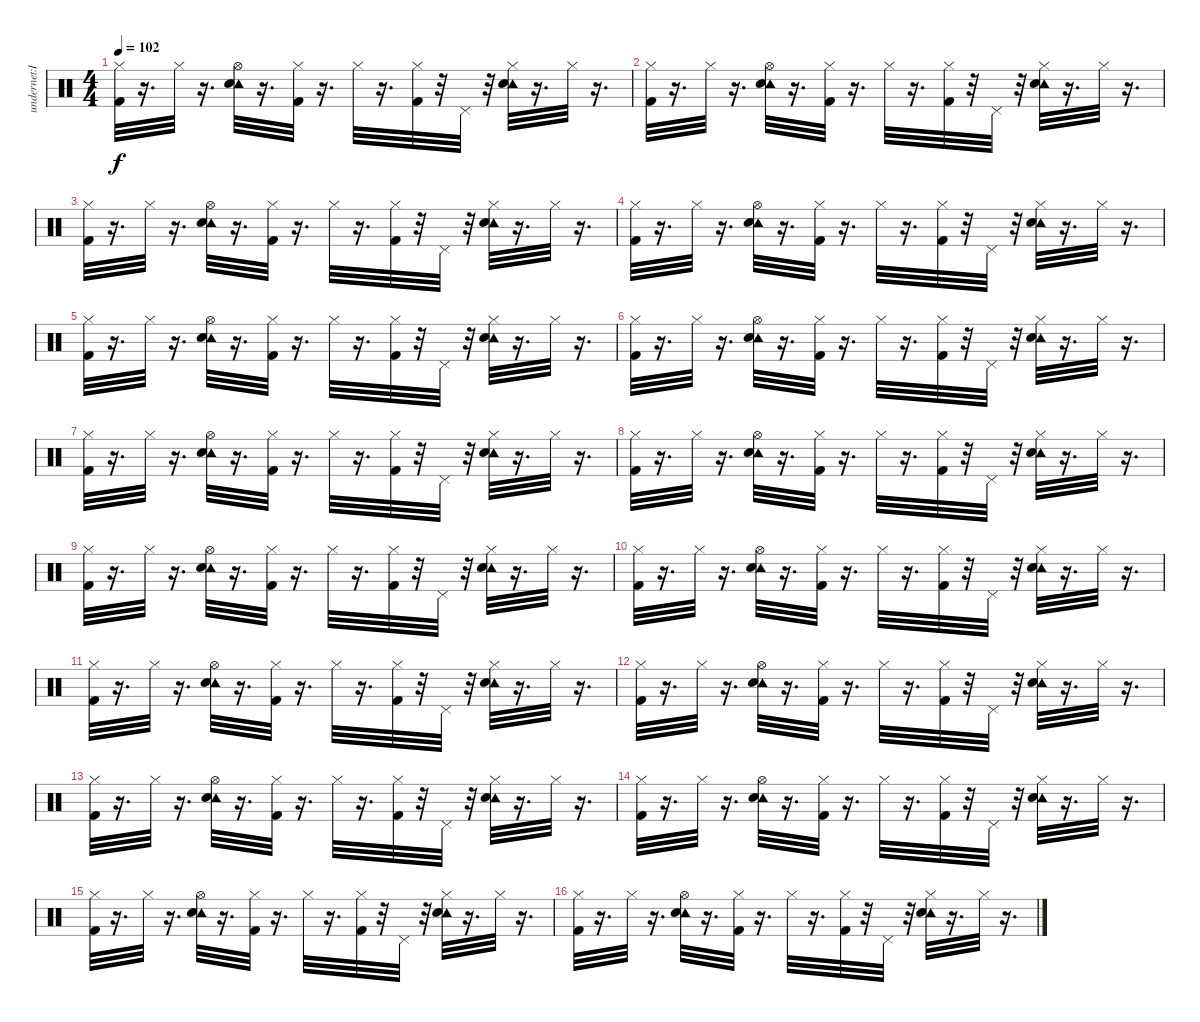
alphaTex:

\track ("undernet:IRC:bong21" "undernet:I") {instrument percussion}
\staff {score}
\articulation defaults
\ts (4 4)
\tempo 102
\clef neutral
\ks c
("Hi-Hat (closed)" "Kick (hit) 2").32{dy f} r.16{d} "Hi-Hat (closed)".32 r.16{d} ("Tambourine (hit)" "Hi-Hat (open)" "Electric Snare (hit)").32 r.16{d} ("Hi-Hat (closed)" "Kick (hit) 2").32 r.16{d} "Hi-Hat (closed)".32 r.16{d} ("Hi-Hat (closed)" "Kick (hit) 2").32 r.32 "Pedal Hi-Hat (hit)".32 r.32 ("Tambourine (hit)" "Hi-Hat (closed)" "Electric Snare (hit)").32 r.16{d} "Hi-Hat (closed)".32 r.16{d} |
("Hi-Hat (closed)" "Kick (hit) 2").32 r.16{d} "Hi-Hat (closed)".32 r.16{d} ("Tambourine (hit)" "Hi-Hat (open)" "Electric Snare (hit)").32 r.16{d} ("Hi-Hat (closed)" "Kick (hit) 2").32 r.16{d} "Hi-Hat (closed)".32 r.16{d} ("Hi-Hat (closed)" "Kick (hit) 2").32 r.32 "Pedal Hi-Hat (hit)".32 r.32 ("Tambourine (hit)" "Hi-Hat (closed)" "Electric Snare (hit)").32 r.16{d} "Hi-Hat (closed)".32 r.16{d} |
("Hi-Hat (closed)" "Kick (hit) 2").32 r.16{d} "Hi-Hat (closed)".32 r.16{d} ("Tambourine (hit)" "Hi-Hat (open)" "Electric Snare (hit)").32 r.16{d} ("Hi-Hat (closed)" "Kick (hit) 2").32 r.16{d} "Hi-Hat (closed)".32 r.16{d} ("Hi-Hat (closed)" "Kick (hit) 2").32 r.32 "Pedal Hi-Hat (hit)".32 r.32 ("Tambourine (hit)" "Hi-Hat (closed)" "Electric Snare (hit)").32 r.16{d} "Hi-Hat (closed)".32 r.16{d} |
("Hi-Hat (closed)" "Kick (hit) 2").32 r.16{d} "Hi-Hat (closed)".32 r.16{d} ("Tambourine (hit)" "Hi-Hat (open)" "Electric Snare (hit)").32 r.16{d} ("Hi-Hat (closed)" "Kick (hit) 2").32 r.16{d} "Hi-Hat (closed)".32 r.16{d} ("Hi-Hat (closed)" "Kick (hit) 2").32 r.32 "Pedal Hi-Hat (hit)".32 r.32 ("Tambourine (hit)" "Hi-Hat (closed)" "Electric Snare (hit)").32 r.16{d} "Hi-Hat (closed)".32 r.16{d} |
("Hi-Hat (closed)" "Kick (hit) 2").32 r.16{d} "Hi-Hat (closed)".32 r.16{d} ("Tambourine (hit)" "Hi-Hat (open)" "Electric Snare (hit)").32 r.16{d} ("Hi-Hat (closed)" "Kick (hit) 2").32 r.16{d} "Hi-Hat (closed)".32 r.16{d} ("Hi-Hat (closed)" "Kick (hit) 2").32 r.32 "Pedal Hi-Hat (hit)".32 r.32 ("Tambourine (hit)" "Hi-Hat (closed)" "Electric Snare (hit)").32 r.16{d} "Hi-Hat (closed)".32 r.16{d} |
("Hi-Hat (closed)" "Kick (hit) 2").32 r.16{d} "Hi-Hat (closed)".32 r.16{d} ("Tambourine (hit)" "Hi-Hat (open)" "Electric Snare (hit)").32 r.16{d} ("Hi-Hat (closed)" "Kick (hit) 2").32 r.16{d} "Hi-Hat (closed)".32 r.16{d} ("Hi-Hat (closed)" "Kick (hit) 2").32 r.32 "Pedal Hi-Hat (hit)".32 r.32 ("Tambourine (hit)" "Hi-Hat (closed)" "Electric Snare (hit)").32 r.16{d} "Hi-Hat (closed)".32 r.16{d} |
("Hi-Hat (closed)" "Kick (hit) 2").32 r.16{d} "Hi-Hat (closed)".32 r.16{d} ("Tambourine (hit)" "Hi-Hat (open)" "Electric Snare (hit)").32 r.16{d} ("Hi-Hat (closed)" "Kick (hit) 2").32 r.16{d} "Hi-Hat (closed)".32 r.16{d} ("Hi-Hat (closed)" "Kick (hit) 2").32 r.32 "Pedal Hi-Hat (hit)".32 r.32 ("Tambourine (hit)" "Hi-Hat (closed)" "Electric Snare (hit)").32 r.16{d} "Hi-Hat (closed)".32 r.16{d} |
("Hi-Hat (closed)" "Kick (hit) 2").32 r.16{d} "Hi-Hat (closed)".32 r.16{d} ("Tambourine (hit)" "Hi-Hat (open)" "Electric Snare (hit)").32 r.16{d} ("Hi-Hat (closed)" "Kick (hit) 2").32 r.16{d} "Hi-Hat (closed)".32 r.16{d} ("Hi-Hat (closed)" "Kick (hit) 2").32 r.32 "Pedal Hi-Hat (hit)".32 r.32 ("Tambourine (hit)" "Hi-Hat (closed)" "Electric Snare (hit)").32 r.16{d} "Hi-Hat (closed)".32 r.16{d} |
("Hi-Hat (closed)" "Kick (hit) 2").32 r.16{d} "Hi-Hat (closed)".32 r.16{d} ("Tambourine (hit)" "Hi-Hat (open)" "Electric Snare (hit)").32 r.16{d} ("Hi-Hat (closed)" "Kick (hit) 2").32 r.16{d} "Hi-Hat (closed)".32 r.16{d} ("Hi-Hat (closed)" "Kick (hit) 2").32 r.32 "Pedal Hi-Hat (hit)".32 r.32 ("Tambourine (hit)" "Hi-Hat (closed)" "Electric Snare (hit)").32 r.16{d} "Hi-Hat (closed)".32 r.16{d} |
("Hi-Hat (closed)" "Kick (hit) 2").32 r.16{d} "Hi-Hat (closed)".32 r.16{d} ("Tambourine (hit)" "Hi-Hat (open)" "Electric Snare (hit)").32 r.16{d} ("Hi-Hat (closed)" "Kick (hit) 2").32 r.16{d} "Hi-Hat (closed)".32 r.16{d} ("Hi-Hat (closed)" "Kick (hit) 2").32 r.32 "Pedal Hi-Hat (hit)".32 r.32 ("Tambourine (hit)" "Hi-Hat (closed)" "Electric Snare (hit)").32 r.16{d} "Hi-Hat (closed)".32 r.16{d} |
("Hi-Hat (closed)" "Kick (hit) 2").32 r.16{d} "Hi-Hat (closed)".32 r.16{d} ("Tambourine (hit)" "Hi-Hat (open)" "Electric Snare (hit)").32 r.16{d} ("Hi-Hat (closed)" "Kick (hit) 2").32 r.16{d} "Hi-Hat (closed)".32 r.16{d} ("Hi-Hat (closed)" "Kick (hit) 2").32 r.32 "Pedal Hi-Hat (hit)".32 r.32 ("Tambourine (hit)" "Hi-Hat (closed)" "Electric Snare (hit)").32 r.16{d} "Hi-Hat (closed)".32 r.16{d} |
("Hi-Hat (closed)" "Kick (hit) 2").32 r.16{d} "Hi-Hat (closed)".32 r.16{d} ("Tambourine (hit)" "Hi-Hat (open)" "Electric Snare (hit)").32 r.16{d} ("Hi-Hat (closed)" "Kick (hit) 2").32 r.16{d} "Hi-Hat (closed)".32 r.16{d} ("Hi-Hat (closed)" "Kick (hit) 2").32 r.32 "Pedal Hi-Hat (hit)".32 r.32 ("Tambourine (hit)" "Hi-Hat (closed)" "Electric Snare (hit)").32 r.16{d} "Hi-Hat (closed)".32 r.16{d} |
("Hi-Hat (closed)" "Kick (hit) 2").32 r.16{d} "Hi-Hat (closed)".32 r.16{d} ("Tambourine (hit)" "Hi-Hat (open)" "Electric Snare (hit)").32 r.16{d} ("Hi-Hat (closed)" "Kick (hit) 2").32 r.16{d} "Hi-Hat (closed)".32 r.16{d} ("Hi-Hat (closed)" "Kick (hit) 2").32 r.32 "Pedal Hi-Hat (hit)".32 r.32 ("Tambourine (hit)" "Hi-Hat (closed)" "Electric Snare (hit)").32 r.16{d} "Hi-Hat (closed)".32 r.16{d} |
("Hi-Hat (closed)" "Kick (hit) 2").32 r.16{d} "Hi-Hat (closed)".32 r.16{d} ("Tambourine (hit)" "Hi-Hat (open)" "Electric Snare (hit)").32 r.16{d} ("Hi-Hat (closed)" "Kick (hit) 2").32 r.16{d} "Hi-Hat (closed)".32 r.16{d} ("Hi-Hat (closed)" "Kick (hit) 2").32 r.32 "Pedal Hi-Hat (hit)".32 r.32 ("Tambourine (hit)" "Hi-Hat (closed)" "Electric Snare (hit)").32 r.16{d} "Hi-Hat (closed)".32 r.16{d} |
("Hi-Hat (closed)" "Kick (hit) 2").32 r.16{d} "Hi-Hat (closed)".32 r.16{d} ("Tambourine (hit)" "Hi-Hat (open)" "Electric Snare (hit)").32 r.16{d} ("Hi-Hat (closed)" "Kick (hit) 2").32 r.16{d} "Hi-Hat (closed)".32 r.16{d} ("Hi-Hat (closed)" "Kick (hit) 2").32 r.32 "Pedal Hi-Hat (hit)".32 r.32 ("Tambourine (hit)" "Hi-Hat (closed)" "Electric Snare (hit)").32 r.16{d} "Hi-Hat (closed)".32 r.16{d} |
("Hi-Hat (closed)" "Kick (hit) 2").32 r.16{d} "Hi-Hat (closed)".32 r.16{d} ("Tambourine (hit)" "Hi-Hat (open)" "Electric Snare (hit)").32 r.16{d} ("Hi-Hat (closed)" "Kick (hit) 2").32 r.16{d} "Hi-Hat (closed)".32 r.16{d} ("Hi-Hat (closed)" "Kick (hit) 2").32 r.32 "Pedal Hi-Hat (hit)".32 r.32 ("Tambourine (hit)" "Hi-Hat (closed)" "Electric Snare (hit)").32 r.16{d} "Hi-Hat (closed)".32 r.16{d}
